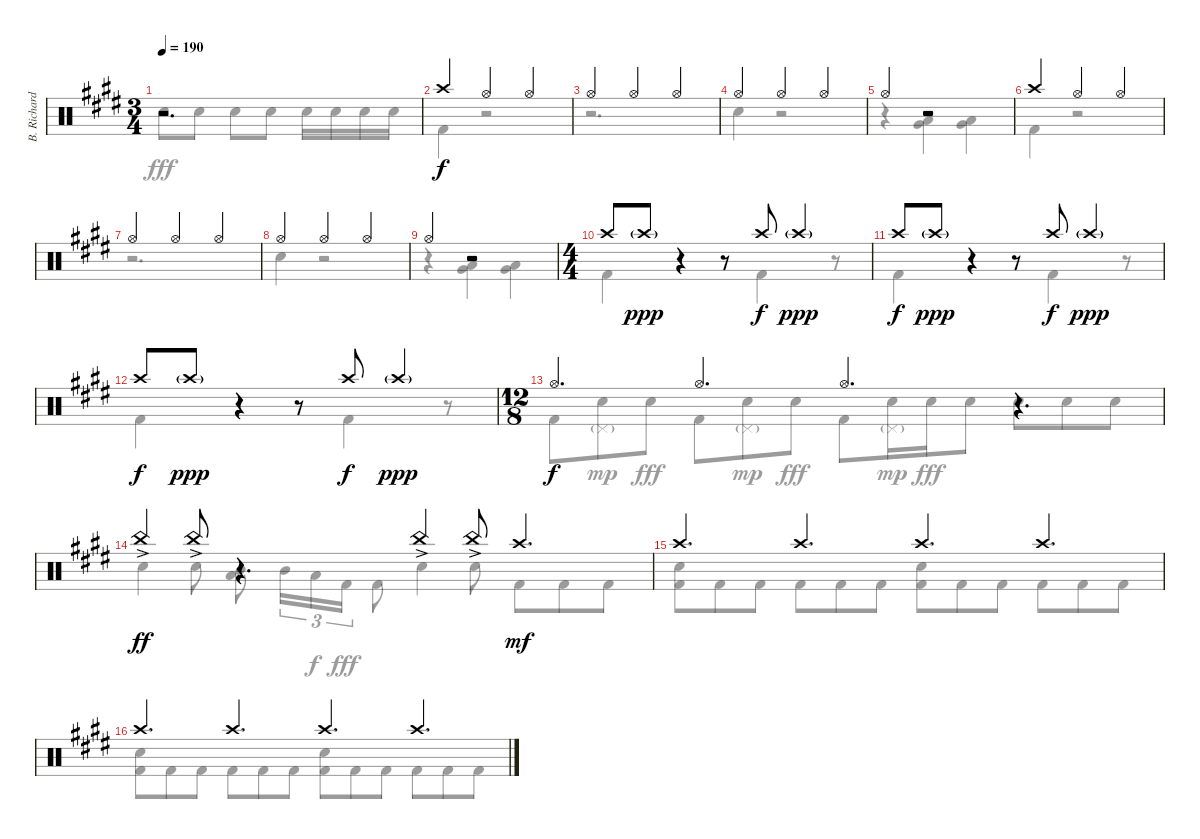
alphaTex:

\track ("B. Richardson Drums" "B. Richard") {instrument percussion}
\staff {score}
\articulation defaults
\voice
\ts (3 4)
\tempo 190
\clef neutral
\ks c#minor
r.2{d dy ff} |
"Crash high (hit)".4{dy f} "Hi-Hat (open)".4 "Hi-Hat (open)".4 |
"Hi-Hat (open)".4 "Hi-Hat (open)".4 "Hi-Hat (open)".4 |
"Hi-Hat (open)".4 "Hi-Hat (open)".4 "Hi-Hat (open)".4 |
"Hi-Hat (open)".4 r.2 |
"Crash high (hit)".4 "Hi-Hat (open)".4 "Hi-Hat (open)".4 |
"Hi-Hat (open)".4 "Hi-Hat (open)".4 "Hi-Hat (open)".4 |
"Hi-Hat (open)".4 "Hi-Hat (open)".4 "Hi-Hat (open)".4 |
"Hi-Hat (open)".4 r.2 |
\ts (4 4)
"Crash high (hit)".8 "Crash high (hit)"{g}.8{dy ppp} r.4 r.8 "Crash high (hit)".8{dy f} "Crash high (hit)"{g}.4{dy ppp} |
"Crash high (hit)".8{dy f} "Crash high (hit)"{g}.8{dy ppp} r.4 r.8 "Crash high (hit)".8{dy f} "Crash high (hit)"{g}.4{dy ppp} |
"Crash high (hit)".8{dy f} "Crash high (hit)"{g}.8{dy ppp} r.4 r.8 "Crash high (hit)".8{dy f} "Crash high (hit)"{g}.4{dy ppp} |
\ts (12 8)
"Hi-Hat (open)".4{d dy f} "Hi-Hat (open)".4{d} "Hi-Hat (open)".4{d} r.4{d} |
"China (hit)"{ac}.4{dy ff} "China (hit)"{ac}.8 r.4{d} "China (hit)"{ac}.4 "China (hit)"{ac}.8 "Crash high (hit)".4{d dy mf} |
"Crash high (hit)".4{d} "Crash high (hit)".4{d} "Crash high (hit)".4{d} "Crash high (hit)".4{d} |
"Crash high (hit)".4{d} "Crash high (hit)".4{d} "Crash high (hit)".4{d} "Crash high (hit)".4{d}
\voice
\clef neutral
\ottava regular
\simile none
\ks c#minor "Electric Snare (hit)".8{dy fff} "Electric Snare (hit)".8 "Electric Snare (hit)".8 "Electric Snare (hit)".8 "Electric Snare (hit)".16 "Electric Snare (hit)".16 "Electric Snare (hit)".16 "Electric Snare (hit)".16
|
"Kick (hit) 2".4 r.2 |
r.2{d} |
"Electric Snare (hit)".4 r.2 |
r.4 ("Low Tom (hit)" "Very Low Tom (hit)").4 ("Low Tom (hit)" "Very Low Tom (hit)").4 |
"Kick (hit) 2".4 r.2 |
r.2{d} |
"Electric Snare (hit)".4 r.2 |
r.4 ("Low Tom (hit)" "Very Low Tom (hit)").4 ("Low Tom (hit)" "Very Low Tom (hit)").4 |
"Kick (hit) 2".4 r.4 r.8 "Kick (hit) 2".4 r.8 |
"Kick (hit) 2".4 r.4 r.8 "Kick (hit) 2".4 r.8 |
"Kick (hit) 2".4 r.4 r.8 "Kick (hit) 2".4 r.8 |
"Kick (hit) 2".8 ("Electric Snare (hit)" "Pedal Hi-Hat (hit)"{g}).8{dy mp} "Electric Snare (hit)".8{dy fff} "Kick (hit) 2".8 ("Electric Snare (hit)" "Pedal Hi-Hat (hit)"{g}).8{dy mp} "Electric Snare (hit)".8{dy fff} "Kick (hit) 2".8 ("Electric Snare (hit)" "Pedal Hi-Hat (hit)"{g}).16{dy mp} "Electric Snare (hit)".16{dy fff} "Electric Snare (hit)".8 "Electric Snare (hit)".8 "Electric Snare (hit)".8 "Electric Snare (hit)".8 |
"Electric Snare (hit)".4 "Electric Snare (hit)".8 ("Mid Tom (hit)" "Low Tom (hit)").8 "Mid Tom (hit)".16{tu (3 2)} "Low Tom (hit)".16{tu (3 2) dy f} "Kick (hit) 2".16{tu (3 2) dy fff} "Kick (hit) 2".8 "Electric Snare (hit)".4 "Electric Snare (hit)".8 "Kick (hit) 2".8 "Kick (hit) 2".8 "Kick (hit) 2".8 |
("Electric Snare (hit)" "Kick (hit) 2").8 "Kick (hit) 2".8 "Kick (hit) 2".8 "Kick (hit) 2".8 "Kick (hit) 2".8 "Kick (hit) 2".8 ("Electric Snare (hit)" "Kick (hit) 2").8 "Kick (hit) 2".8 "Kick (hit) 2".8 "Kick (hit) 2".8 "Kick (hit) 2".8 "Kick (hit) 2".8 |
("Electric Snare (hit)" "Kick (hit) 2").8 "Kick (hit) 2".8 "Kick (hit) 2".8 "Kick (hit) 2".8 "Kick (hit) 2".8 "Kick (hit) 2".8 ("Electric Snare (hit)" "Kick (hit) 2").8 "Kick (hit) 2".8 "Kick (hit) 2".8 "Kick (hit) 2".8 "Kick (hit) 2".8 "Kick (hit) 2".8
